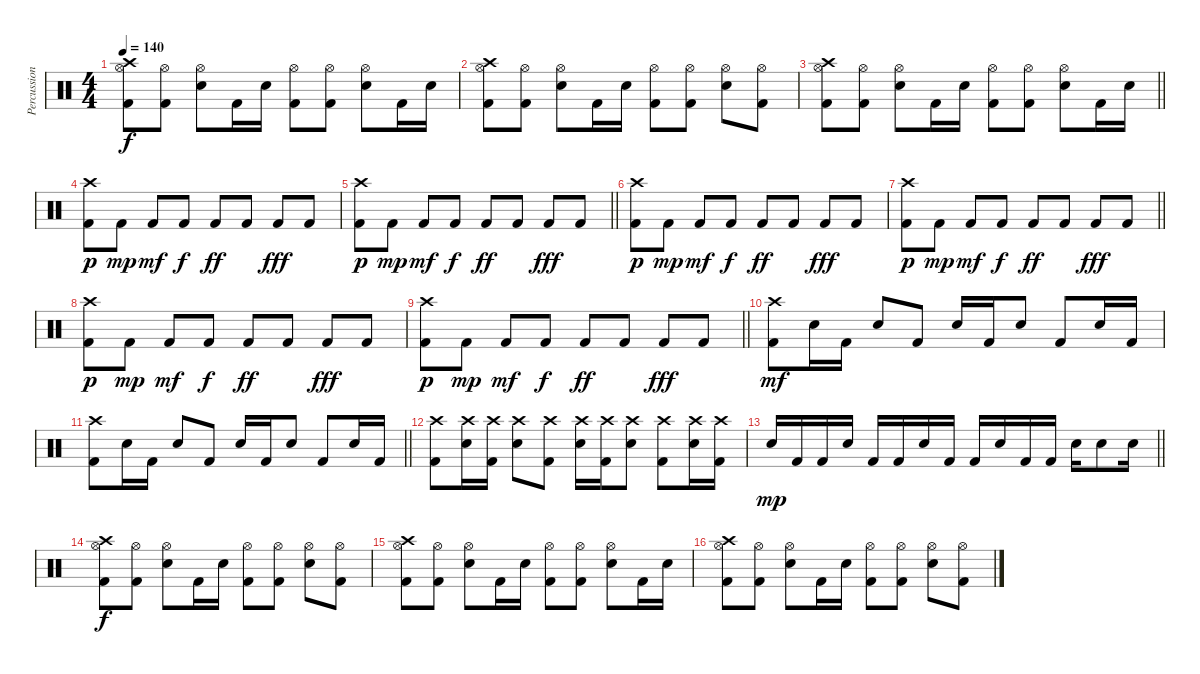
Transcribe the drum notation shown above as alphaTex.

\track ("Percussion" "Percussion") {instrument percussion}
\staff {score}
\articulation defaults
\ts (4 4)
\tempo 140
\clef neutral
\ks c
("Hi-Hat (open)" "Crash high (hit)" "Kick (hit) 2").8{dy f} ("Hi-Hat (open)" "Kick (hit) 2").8 ("Hi-Hat (open)" "Snare (hit) 2").8 "Kick (hit) 2".16 "Snare (hit) 2".16 ("Hi-Hat (open)" "Kick (hit) 2").8 ("Hi-Hat (open)" "Kick (hit) 2").8 ("Hi-Hat (open)" "Snare (hit) 2").8 "Kick (hit) 2".16 "Snare (hit) 2".16 |
("Hi-Hat (open)" "Crash high (hit)" "Kick (hit) 2").8 ("Hi-Hat (open)" "Kick (hit) 2").8 ("Hi-Hat (open)" "Snare (hit) 2").8 "Kick (hit) 2".16 "Snare (hit) 2".16 ("Hi-Hat (open)" "Kick (hit) 2").8 ("Hi-Hat (open)" "Kick (hit) 2").8 ("Hi-Hat (open)" "Snare (hit) 2").8 ("Hi-Hat (open)" "Kick (hit) 2").8 |
\barLineRight lightlight
("Hi-Hat (open)" "Crash high (hit)" "Kick (hit) 2").8 ("Hi-Hat (open)" "Kick (hit) 2").8 ("Hi-Hat (open)" "Snare (hit) 2").8 "Kick (hit) 2".16 "Snare (hit) 2".16 ("Hi-Hat (open)" "Kick (hit) 2").8 ("Hi-Hat (open)" "Kick (hit) 2").8 ("Hi-Hat (open)" "Snare (hit) 2").8 "Kick (hit) 2".16 "Snare (hit) 2".16 |
\section ("" "")
("Crash high (hit)" "Kick (hit) 2").8{dy p} "Kick (hit) 2".8{dy mp} "Kick (hit) 2".8{dy mf} "Kick (hit) 2".8{dy f} "Kick (hit) 2".8{dy ff} "Kick (hit) 2".8 "Kick (hit) 2".8{dy fff} "Kick (hit) 2".8 |
\barLineRight lightlight
("Crash high (hit)" "Kick (hit) 2").8{dy p} "Kick (hit) 2".8{dy mp} "Kick (hit) 2".8{dy mf} "Kick (hit) 2".8{dy f} "Kick (hit) 2".8{dy ff} "Kick (hit) 2".8 "Kick (hit) 2".8{dy fff} "Kick (hit) 2".8 |
("Crash high (hit)" "Kick (hit) 2").8{dy p} "Kick (hit) 2".8{dy mp} "Kick (hit) 2".8{dy mf} "Kick (hit) 2".8{dy f} "Kick (hit) 2".8{dy ff} "Kick (hit) 2".8 "Kick (hit) 2".8{dy fff} "Kick (hit) 2".8 |
\barLineRight lightlight
("Crash high (hit)" "Kick (hit) 2").8{dy p} "Kick (hit) 2".8{dy mp} "Kick (hit) 2".8{dy mf} "Kick (hit) 2".8{dy f} "Kick (hit) 2".8{dy ff} "Kick (hit) 2".8 "Kick (hit) 2".8{dy fff} "Kick (hit) 2".8 |
("Crash high (hit)" "Kick (hit) 2").8{dy p} "Kick (hit) 2".8{dy mp} "Kick (hit) 2".8{dy mf} "Kick (hit) 2".8{dy f} "Kick (hit) 2".8{dy ff} "Kick (hit) 2".8 "Kick (hit) 2".8{dy fff} "Kick (hit) 2".8 |
\barLineRight lightlight
("Crash high (hit)" "Kick (hit) 2").8{dy p} "Kick (hit) 2".8{dy mp} "Kick (hit) 2".8{dy mf} "Kick (hit) 2".8{dy f} "Kick (hit) 2".8{dy ff} "Kick (hit) 2".8 "Kick (hit) 2".8{dy fff} "Kick (hit) 2".8 |
("Crash high (hit)" "Kick (hit) 2").8{dy mf} "Snare (hit) 2".16 "Kick (hit) 2".16 "Snare (hit) 2".8 "Kick (hit) 2".8 "Snare (hit) 2".16 "Kick (hit) 2".16 "Snare (hit) 2".8 "Kick (hit) 2".8 "Snare (hit) 2".16 "Kick (hit) 2".16 |
\barLineRight lightlight
("Crash high (hit)" "Kick (hit) 2").8 "Snare (hit) 2".16 "Kick (hit) 2".16 "Snare (hit) 2".8 "Kick (hit) 2".8 "Snare (hit) 2".16 "Kick (hit) 2".16 "Snare (hit) 2".8 "Kick (hit) 2".8 "Snare (hit) 2".16 "Kick (hit) 2".16 |
("Crash high (hit)" "Kick (hit) 2").8 ("Crash high (hit)" "Snare (hit) 2").16 ("Crash high (hit)" "Kick (hit) 2").16 ("Crash high (hit)" "Snare (hit) 2").8 ("Crash high (hit)" "Kick (hit) 2").8 ("Crash high (hit)" "Snare (hit) 2").16 ("Crash high (hit)" "Kick (hit) 2").16 ("Crash high (hit)" "Snare (hit) 2").8 ("Crash high (hit)" "Kick (hit) 2").8 ("Crash high (hit)" "Snare (hit) 2").16 ("Crash high (hit)" "Kick (hit) 2").16 |
\barLineRight lightlight "Snare (hit) 2".16{dy mp} "Kick (hit) 2".16 "Kick (hit) 2".16 "Snare (hit) 2".16 "Kick (hit) 2".16 "Kick (hit) 2".16 "Snare (hit) 2".16 "Kick (hit) 2".16 "Kick (hit) 2".16 "Snare (hit) 2".16 "Kick (hit) 2".16 "Kick (hit) 2".16 "Snare (hit) 2".16 "Snare (hit) 2".8 "Snare (hit) 2".16
|
\section ("" "")
("Hi-Hat (open)" "Crash high (hit)" "Kick (hit) 2").8{dy f} ("Hi-Hat (open)" "Kick (hit) 2").8 ("Hi-Hat (open)" "Snare (hit) 2").8 "Kick (hit) 2".16 "Snare (hit) 2".16 ("Hi-Hat (open)" "Kick (hit) 2").8 ("Hi-Hat (open)" "Kick (hit) 2").8 ("Hi-Hat (open)" "Snare (hit) 2").8 ("Hi-Hat (open)" "Kick (hit) 2").8 |
("Hi-Hat (open)" "Crash high (hit)" "Kick (hit) 2").8 ("Hi-Hat (open)" "Kick (hit) 2").8 ("Hi-Hat (open)" "Snare (hit) 2").8 "Kick (hit) 2".16 "Snare (hit) 2".16 ("Hi-Hat (open)" "Kick (hit) 2").8 ("Hi-Hat (open)" "Kick (hit) 2").8 ("Hi-Hat (open)" "Snare (hit) 2").8 "Kick (hit) 2".16 "Snare (hit) 2".16 |
("Hi-Hat (open)" "Crash high (hit)" "Kick (hit) 2").8 ("Hi-Hat (open)" "Kick (hit) 2").8 ("Hi-Hat (open)" "Snare (hit) 2").8 "Kick (hit) 2".16 "Snare (hit) 2".16 ("Hi-Hat (open)" "Kick (hit) 2").8 ("Hi-Hat (open)" "Kick (hit) 2").8 ("Hi-Hat (open)" "Snare (hit) 2").8 ("Hi-Hat (open)" "Kick (hit) 2").8
